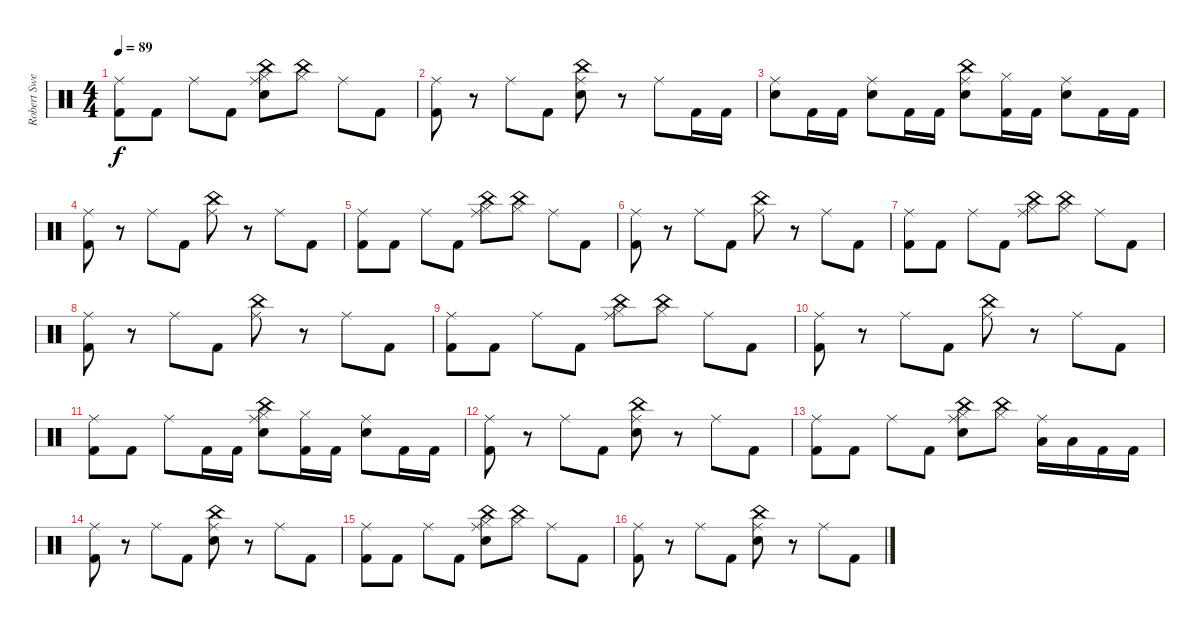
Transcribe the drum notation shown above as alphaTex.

\track ("Robert Sweet" "Robert Swe") {instrument percussion}
\staff {score}
\articulation defaults
\ts (4 4)
\tempo 89
\clef neutral
\ks c
("Ride (middle)" "Kick (hit) 2").8{dy f} "Kick (hit) 2".8 "Ride (middle)".8 "Kick (hit) 2".8 ("Ride (middle)" "China (hit)" "Hi-Hat (closed)" "Electric Snare (hit)").8 ("China (hit)" "Hi-Hat (closed)").8 "Ride (middle)".8 "Kick (hit) 2".8 |
("Ride (middle)" "Kick (hit) 2").8 r.8 "Ride (middle)".8 "Kick (hit) 2".8 ("Ride (middle)" "China (hit)" "Electric Snare (hit)").8 r.8 "Ride (middle)".8 "Kick (hit) 2".16 "Kick (hit) 2".16 |
("Ride (middle)" "Electric Snare (hit)").8 "Kick (hit) 2".16 "Kick (hit) 2".16 ("Ride (middle)" "Electric Snare (hit)").8 "Kick (hit) 2".16 "Kick (hit) 2".16 ("Ride (middle)" "China (hit)" "Electric Snare (hit)").8 ("Kick (hit) 2" "Hi-Hat (closed)").16 "Kick (hit) 2".16 ("Ride (middle)" "Electric Snare (hit)").8 "Kick (hit) 2".16 "Kick (hit) 2".16 |
("Ride (middle)" "Kick (hit) 2").8 r.8 "Ride (middle)".8 "Kick (hit) 2".8 ("Ride (middle)" "China (hit)").8 r.8 "Ride (middle)".8 "Kick (hit) 2".8 |
("Ride (middle)" "Kick (hit) 2").8 "Kick (hit) 2".8 "Ride (middle)".8 "Kick (hit) 2".8 ("Ride (middle)" "China (hit)" "Hi-Hat (closed)").8 ("China (hit)" "Hi-Hat (closed)").8 "Ride (middle)".8 "Kick (hit) 2".8 |
("Ride (middle)" "Kick (hit) 2").8 r.8 "Ride (middle)".8 "Kick (hit) 2".8 ("Ride (middle)" "China (hit)").8 r.8 "Ride (middle)".8 "Kick (hit) 2".8 |
("Ride (middle)" "Kick (hit) 2").8 "Kick (hit) 2".8 "Ride (middle)".8 "Kick (hit) 2".8 ("Ride (middle)" "China (hit)" "Hi-Hat (closed)").8 ("China (hit)" "Hi-Hat (closed)").8 "Ride (middle)".8 "Kick (hit) 2".8 |
("Ride (middle)" "Kick (hit) 2").8 r.8 "Ride (middle)".8 "Kick (hit) 2".8 ("Ride (middle)" "China (hit)").8 r.8 "Ride (middle)".8 "Kick (hit) 2".8 |
("Ride (middle)" "Kick (hit) 2").8 "Kick (hit) 2".8 "Ride (middle)".8 "Kick (hit) 2".8 ("Ride (middle)" "China (hit)" "Hi-Hat (closed)").8 ("China (hit)" "Hi-Hat (closed)").8 "Ride (middle)".8 "Kick (hit) 2".8 |
("Ride (middle)" "Kick (hit) 2").8 r.8 "Ride (middle)".8 "Kick (hit) 2".8 ("Ride (middle)" "China (hit)").8 r.8 "Ride (middle)".8 "Kick (hit) 2".8 |
("Ride (middle)" "Kick (hit) 2").8 "Kick (hit) 2".8 "Ride (middle)".8 "Kick (hit) 2".16 "Kick (hit) 2".16 ("Ride (middle)" "China (hit)" "Hi-Hat (closed)" "Electric Snare (hit)").8 ("Kick (hit) 2" "Hi-Hat (closed)").16 "Kick (hit) 2".16 ("Ride (middle)" "Electric Snare (hit)").8 "Kick (hit) 2".16 "Kick (hit) 2".16 |
("Ride (middle)" "Kick (hit) 2").8 r.8 "Ride (middle)".8 "Kick (hit) 2".8 ("Ride (middle)" "China (hit)" "Electric Snare (hit)").8 r.8 "Ride (middle)".8 "Kick (hit) 2".8 |
("Ride (middle)" "Kick (hit) 2").8 "Kick (hit) 2".8 "Ride (middle)".8 "Kick (hit) 2".8 ("Ride (middle)" "China (hit)" "Hi-Hat (closed)" "Electric Snare (hit)").8 ("China (hit)" "Hi-Hat (closed)").8 ("Ride (middle)" "Low Floor Tom (hit)").16 "Low Floor Tom (hit)".16 "Kick (hit) 2".16 "Kick (hit) 2".16 |
("Ride (middle)" "Kick (hit) 2").8 r.8 "Ride (middle)".8 "Kick (hit) 2".8 ("Ride (middle)" "China (hit)" "Electric Snare (hit)").8 r.8 "Ride (middle)".8 "Kick (hit) 2".8 |
("Ride (middle)" "Kick (hit) 2").8 "Kick (hit) 2".8 "Ride (middle)".8 "Kick (hit) 2".8 ("Ride (middle)" "China (hit)" "Hi-Hat (closed)" "Electric Snare (hit)").8 ("China (hit)" "Hi-Hat (closed)").8 "Ride (middle)".8 "Kick (hit) 2".8 |
("Ride (middle)" "Kick (hit) 2").8 r.8 "Ride (middle)".8 "Kick (hit) 2".8 ("Ride (middle)" "China (hit)" "Electric Snare (hit)").8 r.8 "Ride (middle)".8 "Kick (hit) 2".8
